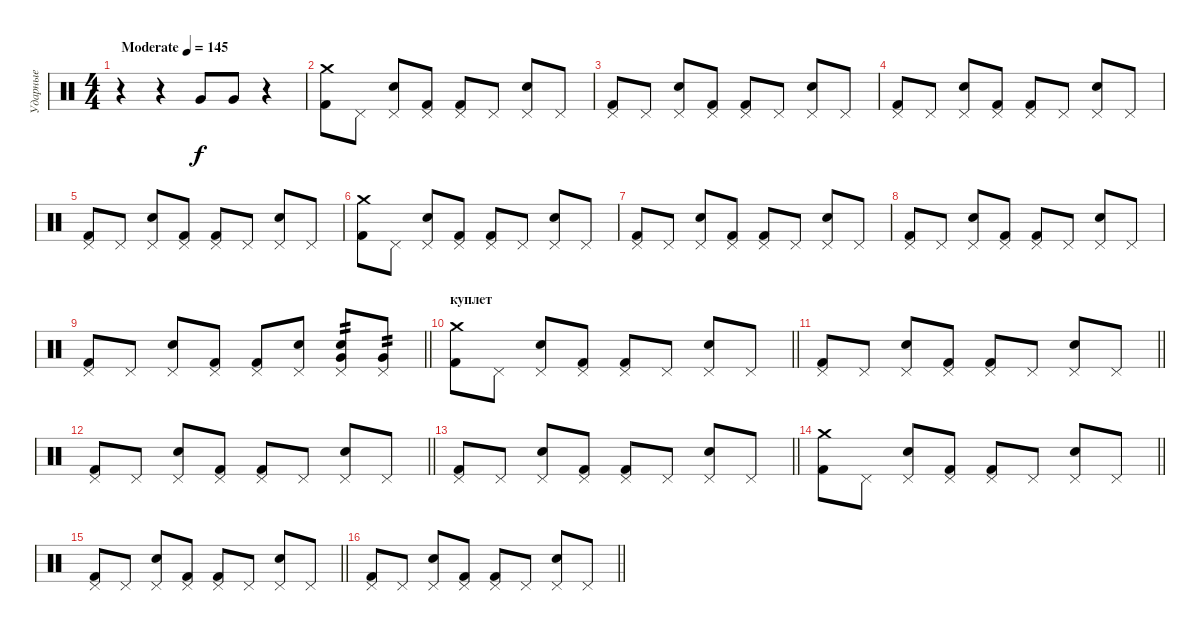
\track ("Ударные" "Ударные") {instrument percussion}
\staff {score}
\articulation defaults
\ts (4 4)
\tempo (145 "Moderate")
\clef neutral
\ks c
r.4{dy f} r.4 "Very Low Tom (hit)".8 "Very Low Tom (hit)".8 r.4 |
("Crash medium (hit)" "Kick (hit) 2").8 "Pedal Hi-Hat (hit)".8 ("Pedal Hi-Hat (hit)" "Electric Snare (hit)").8 ("Pedal Hi-Hat (hit)" "Kick (hit) 2").8 ("Pedal Hi-Hat (hit)" "Kick (hit) 2").8 "Pedal Hi-Hat (hit)".8 ("Pedal Hi-Hat (hit)" "Electric Snare (hit)").8 "Pedal Hi-Hat (hit)".8 |
("Pedal Hi-Hat (hit)" "Kick (hit) 2").8 "Pedal Hi-Hat (hit)".8 ("Pedal Hi-Hat (hit)" "Electric Snare (hit)").8 ("Pedal Hi-Hat (hit)" "Kick (hit) 2").8 ("Pedal Hi-Hat (hit)" "Kick (hit) 2").8 "Pedal Hi-Hat (hit)".8 ("Pedal Hi-Hat (hit)" "Electric Snare (hit)").8 "Pedal Hi-Hat (hit)".8 |
("Pedal Hi-Hat (hit)" "Kick (hit) 2").8 "Pedal Hi-Hat (hit)".8 ("Pedal Hi-Hat (hit)" "Electric Snare (hit)").8 ("Pedal Hi-Hat (hit)" "Kick (hit) 2").8 ("Pedal Hi-Hat (hit)" "Kick (hit) 2").8 "Pedal Hi-Hat (hit)".8 ("Pedal Hi-Hat (hit)" "Electric Snare (hit)").8 "Pedal Hi-Hat (hit)".8 |
("Pedal Hi-Hat (hit)" "Kick (hit) 2").8 "Pedal Hi-Hat (hit)".8 ("Pedal Hi-Hat (hit)" "Electric Snare (hit)").8 ("Pedal Hi-Hat (hit)" "Kick (hit) 2").8 ("Pedal Hi-Hat (hit)" "Kick (hit) 2").8 "Pedal Hi-Hat (hit)".8 ("Pedal Hi-Hat (hit)" "Electric Snare (hit)").8 "Pedal Hi-Hat (hit)".8 |
("Crash medium (hit)" "Kick (hit) 2").8 "Pedal Hi-Hat (hit)".8 ("Pedal Hi-Hat (hit)" "Electric Snare (hit)").8 ("Pedal Hi-Hat (hit)" "Kick (hit) 2").8 ("Pedal Hi-Hat (hit)" "Kick (hit) 2").8 "Pedal Hi-Hat (hit)".8 ("Pedal Hi-Hat (hit)" "Electric Snare (hit)").8 "Pedal Hi-Hat (hit)".8 |
("Pedal Hi-Hat (hit)" "Kick (hit) 2").8 "Pedal Hi-Hat (hit)".8 ("Pedal Hi-Hat (hit)" "Electric Snare (hit)").8 ("Pedal Hi-Hat (hit)" "Kick (hit) 2").8 ("Pedal Hi-Hat (hit)" "Kick (hit) 2").8 "Pedal Hi-Hat (hit)".8 ("Pedal Hi-Hat (hit)" "Electric Snare (hit)").8 "Pedal Hi-Hat (hit)".8 |
("Pedal Hi-Hat (hit)" "Kick (hit) 2").8 "Pedal Hi-Hat (hit)".8 ("Pedal Hi-Hat (hit)" "Electric Snare (hit)").8 ("Pedal Hi-Hat (hit)" "Kick (hit) 2").8 ("Pedal Hi-Hat (hit)" "Kick (hit) 2").8 "Pedal Hi-Hat (hit)".8 ("Pedal Hi-Hat (hit)" "Electric Snare (hit)").8 "Pedal Hi-Hat (hit)".8 |
\barLineRight lightlight
("Pedal Hi-Hat (hit)" "Kick (hit) 2").8 "Pedal Hi-Hat (hit)".8 ("Pedal Hi-Hat (hit)" "Electric Snare (hit)").8 ("Pedal Hi-Hat (hit)" "Kick (hit) 2").8 ("Pedal Hi-Hat (hit)" "Kick (hit) 2").8 ("Pedal Hi-Hat (hit)" "Electric Snare (hit)").8 ("Pedal Hi-Hat (hit)" "Very Low Tom (hit)" "Electric Snare (hit)").8{tp 2} ("Pedal Hi-Hat (hit)" "Very Low Tom (hit)").8{tp 2} |
\section ("" "куплет")
\barLineRight lightlight
("Crash medium (hit)" "Kick (hit) 2").8 "Pedal Hi-Hat (hit)".8 ("Pedal Hi-Hat (hit)" "Electric Snare (hit)").8 ("Pedal Hi-Hat (hit)" "Kick (hit) 2").8 ("Pedal Hi-Hat (hit)" "Kick (hit) 2").8 "Pedal Hi-Hat (hit)".8 ("Pedal Hi-Hat (hit)" "Electric Snare (hit)").8 "Pedal Hi-Hat (hit)".8 |
\barLineRight lightlight
("Pedal Hi-Hat (hit)" "Kick (hit) 2").8 "Pedal Hi-Hat (hit)".8 ("Pedal Hi-Hat (hit)" "Electric Snare (hit)").8 ("Pedal Hi-Hat (hit)" "Kick (hit) 2").8 ("Pedal Hi-Hat (hit)" "Kick (hit) 2").8 "Pedal Hi-Hat (hit)".8 ("Pedal Hi-Hat (hit)" "Electric Snare (hit)").8 "Pedal Hi-Hat (hit)".8 |
\barLineRight lightlight
("Pedal Hi-Hat (hit)" "Kick (hit) 2").8 "Pedal Hi-Hat (hit)".8 ("Pedal Hi-Hat (hit)" "Electric Snare (hit)").8 ("Pedal Hi-Hat (hit)" "Kick (hit) 2").8 ("Pedal Hi-Hat (hit)" "Kick (hit) 2").8 "Pedal Hi-Hat (hit)".8 ("Pedal Hi-Hat (hit)" "Electric Snare (hit)").8 "Pedal Hi-Hat (hit)".8 |
\barLineRight lightlight
("Pedal Hi-Hat (hit)" "Kick (hit) 2").8 "Pedal Hi-Hat (hit)".8 ("Pedal Hi-Hat (hit)" "Electric Snare (hit)").8 ("Pedal Hi-Hat (hit)" "Kick (hit) 2").8 ("Pedal Hi-Hat (hit)" "Kick (hit) 2").8 "Pedal Hi-Hat (hit)".8 ("Pedal Hi-Hat (hit)" "Electric Snare (hit)").8 "Pedal Hi-Hat (hit)".8 |
\barLineRight lightlight
("Crash medium (hit)" "Kick (hit) 2").8 "Pedal Hi-Hat (hit)".8 ("Pedal Hi-Hat (hit)" "Electric Snare (hit)").8 ("Pedal Hi-Hat (hit)" "Kick (hit) 2").8 ("Pedal Hi-Hat (hit)" "Kick (hit) 2").8 "Pedal Hi-Hat (hit)".8 ("Pedal Hi-Hat (hit)" "Electric Snare (hit)").8 "Pedal Hi-Hat (hit)".8 |
\barLineRight lightlight
("Pedal Hi-Hat (hit)" "Kick (hit) 2").8 "Pedal Hi-Hat (hit)".8 ("Pedal Hi-Hat (hit)" "Electric Snare (hit)").8 ("Pedal Hi-Hat (hit)" "Kick (hit) 2").8 ("Pedal Hi-Hat (hit)" "Kick (hit) 2").8 "Pedal Hi-Hat (hit)".8 ("Pedal Hi-Hat (hit)" "Electric Snare (hit)").8 "Pedal Hi-Hat (hit)".8 |
\barLineRight lightlight
("Pedal Hi-Hat (hit)" "Kick (hit) 2").8 "Pedal Hi-Hat (hit)".8 ("Pedal Hi-Hat (hit)" "Electric Snare (hit)").8 ("Pedal Hi-Hat (hit)" "Kick (hit) 2").8 ("Pedal Hi-Hat (hit)" "Kick (hit) 2").8 "Pedal Hi-Hat (hit)".8 ("Pedal Hi-Hat (hit)" "Electric Snare (hit)").8 "Pedal Hi-Hat (hit)".8
